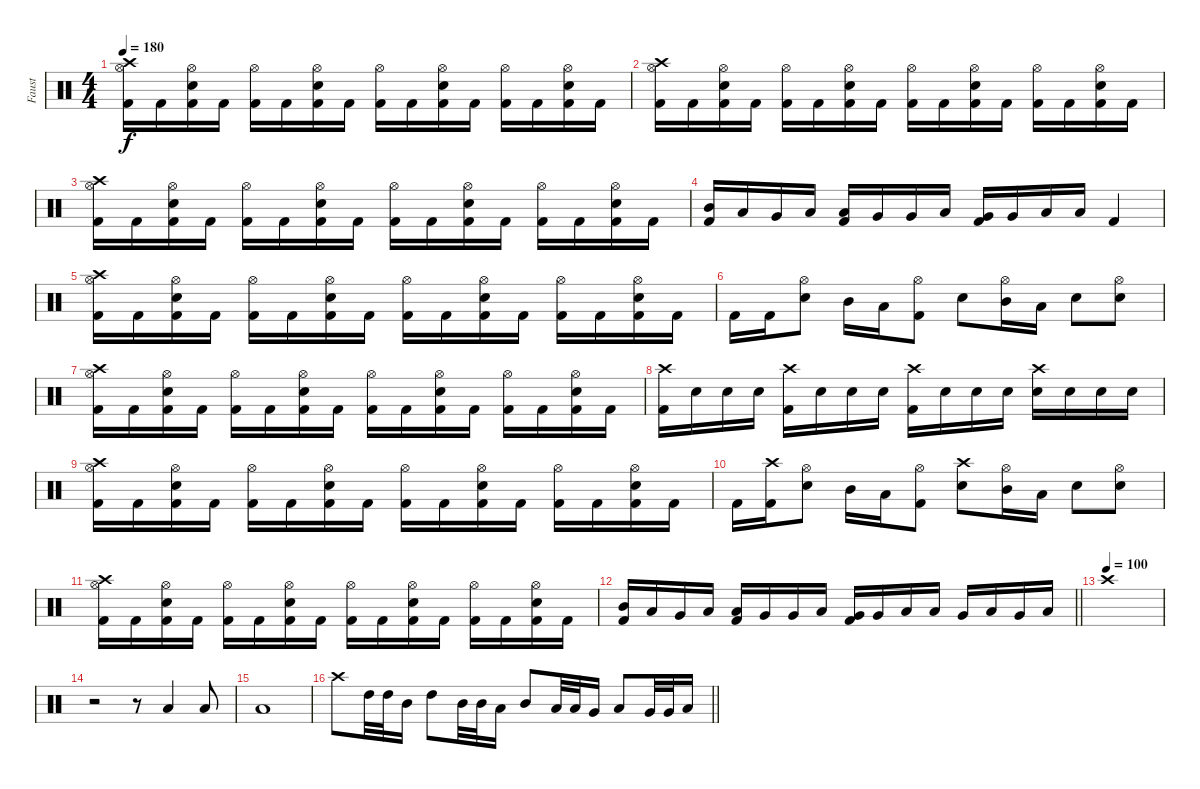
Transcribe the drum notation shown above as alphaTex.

\track ("Faust" "Faust") {instrument percussion}
\staff {score}
\articulation defaults
\ts (4 4)
\tempo 180
\clef neutral
\ks c
("Crash high (hit)" "Hi-Hat (open)" "Kick (hit) 2").16{dy f} "Kick (hit) 2".16 ("Hi-Hat (open)" "Snare (hit) 2" "Kick (hit) 2").16 "Kick (hit) 2".16 ("Hi-Hat (open)" "Kick (hit) 2").16 "Kick (hit) 2".16 ("Hi-Hat (open)" "Snare (hit) 2" "Kick (hit) 2").16 "Kick (hit) 2".16 ("Hi-Hat (open)" "Kick (hit) 2").16 "Kick (hit) 2".16 ("Hi-Hat (open)" "Snare (hit) 2" "Kick (hit) 2").16 "Kick (hit) 2".16 ("Hi-Hat (open)" "Kick (hit) 2").16 "Kick (hit) 2".16 ("Hi-Hat (open)" "Snare (hit) 2" "Kick (hit) 2").16 "Kick (hit) 2".16 |
("Crash high (hit)" "Hi-Hat (open)" "Kick (hit) 2").16 "Kick (hit) 2".16 ("Hi-Hat (open)" "Snare (hit) 2" "Kick (hit) 2").16 "Kick (hit) 2".16 ("Hi-Hat (open)" "Kick (hit) 2").16 "Kick (hit) 2".16 ("Hi-Hat (open)" "Snare (hit) 2" "Kick (hit) 2").16 "Kick (hit) 2".16 ("Hi-Hat (open)" "Kick (hit) 2").16 "Kick (hit) 2".16 ("Hi-Hat (open)" "Snare (hit) 2" "Kick (hit) 2").16 "Kick (hit) 2".16 ("Hi-Hat (open)" "Kick (hit) 2").16 "Kick (hit) 2".16 ("Hi-Hat (open)" "Snare (hit) 2" "Kick (hit) 2").16 "Kick (hit) 2".16 |
("Crash high (hit)" "Hi-Hat (open)" "Kick (hit) 2").16 "Kick (hit) 2".16 ("Hi-Hat (open)" "Snare (hit) 2" "Kick (hit) 2").16 "Kick (hit) 2".16 ("Hi-Hat (open)" "Kick (hit) 2").16 "Kick (hit) 2".16 ("Hi-Hat (open)" "Snare (hit) 2" "Kick (hit) 2").16 "Kick (hit) 2".16 ("Hi-Hat (open)" "Kick (hit) 2").16 "Kick (hit) 2".16 ("Hi-Hat (open)" "Snare (hit) 2" "Kick (hit) 2").16 "Kick (hit) 2".16 ("Hi-Hat (open)" "Kick (hit) 2").16 "Kick (hit) 2".16 ("Hi-Hat (open)" "Snare (hit) 2" "Kick (hit) 2").16 "Kick (hit) 2".16 |
("Mid Tom (hit)" "Kick (hit) 2").16 "Low Tom (hit)".16 "Very Low Tom (hit)".16 "Low Floor Tom (hit)".16 ("Low Tom (hit)" "Kick (hit) 2").16 "Very Low Tom (hit)".16 "Very Low Tom (hit)".16 "Low Floor Tom (hit)".16 ("Very Low Tom (hit)" "Kick (hit) 2").16 "Very Low Tom (hit)".16 "Low Floor Tom (hit)".16 "Low Floor Tom (hit)".16 "Kick (hit) 2".4 |
("Crash high (hit)" "Hi-Hat (open)" "Kick (hit) 2").16 "Kick (hit) 2".16 ("Hi-Hat (open)" "Snare (hit) 2" "Kick (hit) 2").16 "Kick (hit) 2".16 ("Hi-Hat (open)" "Kick (hit) 2").16 "Kick (hit) 2".16 ("Hi-Hat (open)" "Snare (hit) 2" "Kick (hit) 2").16 "Kick (hit) 2".16 ("Hi-Hat (open)" "Kick (hit) 2").16 "Kick (hit) 2".16 ("Hi-Hat (open)" "Snare (hit) 2" "Kick (hit) 2").16 "Kick (hit) 2".16 ("Hi-Hat (open)" "Kick (hit) 2").16 "Kick (hit) 2".16 ("Hi-Hat (open)" "Snare (hit) 2" "Kick (hit) 2").16 "Kick (hit) 2".16 |
"Kick (hit) 2".16 "Kick (hit) 2".16 ("Hi-Hat (open)" "Snare (hit) 2").8 "Mid Tom (hit)".16 "Low Tom (hit)".16 ("Hi-Hat (open)" "Kick (hit) 2").8 "Snare (hit) 2".8 ("Hi-Hat (open)" "Mid Tom (hit)").16 "Low Tom (hit)".16 "Snare (hit) 2".8 ("Hi-Hat (open)" "Snare (hit) 2").8 |
("Crash high (hit)" "Hi-Hat (open)" "Kick (hit) 2").16 "Kick (hit) 2".16 ("Hi-Hat (open)" "Snare (hit) 2" "Kick (hit) 2").16 "Kick (hit) 2".16 ("Hi-Hat (open)" "Kick (hit) 2").16 "Kick (hit) 2".16 ("Hi-Hat (open)" "Snare (hit) 2" "Kick (hit) 2").16 "Kick (hit) 2".16 ("Hi-Hat (open)" "Kick (hit) 2").16 "Kick (hit) 2".16 ("Hi-Hat (open)" "Snare (hit) 2" "Kick (hit) 2").16 "Kick (hit) 2".16 ("Hi-Hat (open)" "Kick (hit) 2").16 "Kick (hit) 2".16 ("Hi-Hat (open)" "Snare (hit) 2" "Kick (hit) 2").16 "Kick (hit) 2".16 |
("Crash high (hit)" "Kick (hit) 2").16 "Snare (hit) 2".16 "Snare (hit) 2".16 "Snare (hit) 2".16 ("Crash high (hit)" "Kick (hit) 2").16 "Snare (hit) 2".16 "Snare (hit) 2".16 "Snare (hit) 2".16 ("Crash high (hit)" "Kick (hit) 2").16 "Snare (hit) 2".16 "Snare (hit) 2".16 "Snare (hit) 2".16 ("Crash high (hit)" "Snare (hit) 2").16 "Snare (hit) 2".16 "Snare (hit) 2".16 "Snare (hit) 2".16 |
("Crash high (hit)" "Hi-Hat (open)" "Kick (hit) 2").16 "Kick (hit) 2".16 ("Hi-Hat (open)" "Snare (hit) 2" "Kick (hit) 2").16 "Kick (hit) 2".16 ("Hi-Hat (open)" "Kick (hit) 2").16 "Kick (hit) 2".16 ("Hi-Hat (open)" "Snare (hit) 2" "Kick (hit) 2").16 "Kick (hit) 2".16 ("Hi-Hat (open)" "Kick (hit) 2").16 "Kick (hit) 2".16 ("Hi-Hat (open)" "Snare (hit) 2" "Kick (hit) 2").16 "Kick (hit) 2".16 ("Hi-Hat (open)" "Kick (hit) 2").16 "Kick (hit) 2".16 ("Hi-Hat (open)" "Snare (hit) 2" "Kick (hit) 2").16 "Kick (hit) 2".16 |
"Kick (hit) 2".16 ("Crash high (hit)" "Kick (hit) 2").16 ("Hi-Hat (open)" "Snare (hit) 2").8 "Mid Tom (hit)".16 "Low Tom (hit)".16 ("Hi-Hat (open)" "Kick (hit) 2").8 ("Crash high (hit)" "Snare (hit) 2").8 ("Hi-Hat (open)" "Mid Tom (hit)").16 "Low Tom (hit)".16 "Snare (hit) 2".8 ("Hi-Hat (open)" "Snare (hit) 2").8 |
("Crash high (hit)" "Hi-Hat (open)" "Kick (hit) 2").16 "Kick (hit) 2".16 ("Hi-Hat (open)" "Snare (hit) 2" "Kick (hit) 2").16 "Kick (hit) 2".16 ("Hi-Hat (open)" "Kick (hit) 2").16 "Kick (hit) 2".16 ("Hi-Hat (open)" "Snare (hit) 2" "Kick (hit) 2").16 "Kick (hit) 2".16 ("Hi-Hat (open)" "Kick (hit) 2").16 "Kick (hit) 2".16 ("Hi-Hat (open)" "Snare (hit) 2" "Kick (hit) 2").16 "Kick (hit) 2".16 ("Hi-Hat (open)" "Kick (hit) 2").16 "Kick (hit) 2".16 ("Hi-Hat (open)" "Snare (hit) 2" "Kick (hit) 2").16 "Kick (hit) 2".16 |
\barLineRight lightlight
("Mid Tom (hit)" "Kick (hit) 2").16 "Low Tom (hit)".16 "Very Low Tom (hit)".16 "Low Floor Tom (hit)".16 ("Low Tom (hit)" "Kick (hit) 2").16 "Very Low Tom (hit)".16 "Very Low Tom (hit)".16 "Low Floor Tom (hit)".16 ("Very Low Tom (hit)" "Kick (hit) 2").16 "Very Low Tom (hit)".16 "Low Floor Tom (hit)".16 "Low Floor Tom (hit)".16 "Very Low Tom (hit)".16 "Low Floor Tom (hit)".16 "Very Low Tom (hit)".16 "Low Floor Tom (hit)".16 |
\tempo (100)
"Crash high (hit)".1 |
r.2 r.8 "Low Tom (hit)".4 "Low Tom (hit)".8 |
"Low Tom (hit)".1 |
\barLineRight lightlight "Crash high (hit)".8 "High Tom (hit)".32 "High Tom (hit)".32 "Mid Tom (hit)".16 "High Tom (hit)".8 "Mid Tom (hit)".32 "Mid Tom (hit)".32 "Low Tom (hit)".16 "Mid Tom (hit)".8 "Low Tom (hit)".32 "Low Tom (hit)".32 "Very Low Tom (hit)".16 "Low Tom (hit)".8 "Very Low Tom (hit)".32 "Very Low Tom (hit)".32 "Low Floor Tom (hit)".16
